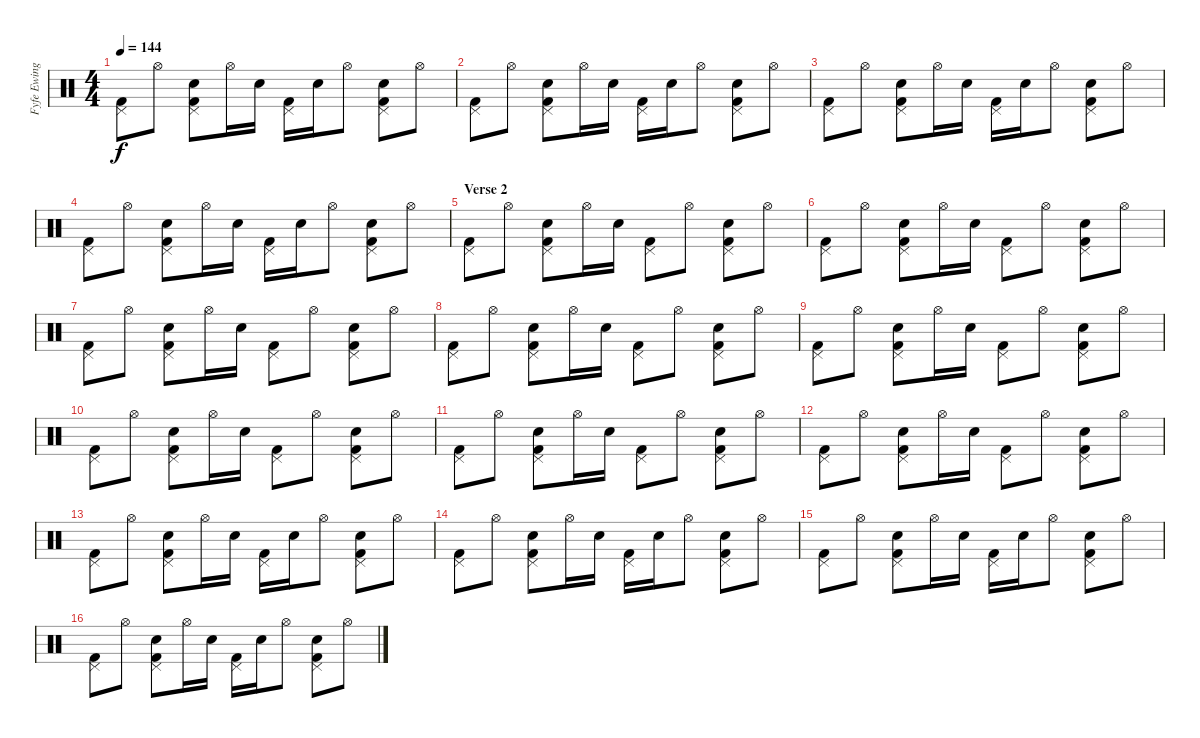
\track ("Fyfe Ewing" "Fyfe Ewing") {instrument percussion}
\staff {score}
\articulation defaults
\ts (4 4)
\tempo 144
\clef neutral
\ks c
("Pedal Hi-Hat (hit)" "Kick (hit) 2").8{dy f} "Hi-Hat (open)".8 ("Pedal Hi-Hat (hit)" "Snare (hit) 2" "Kick (hit) 2").8 "Hi-Hat (open)".16 "Snare (hit) 2".16 ("Pedal Hi-Hat (hit)" "Kick (hit) 2").16 "Snare (hit) 2".16 "Hi-Hat (open)".8 ("Pedal Hi-Hat (hit)" "Snare (hit) 2" "Kick (hit) 2").8 "Hi-Hat (open)".8 |
("Pedal Hi-Hat (hit)" "Kick (hit) 2").8 "Hi-Hat (open)".8 ("Pedal Hi-Hat (hit)" "Snare (hit) 2" "Kick (hit) 2").8 "Hi-Hat (open)".16 "Snare (hit) 2".16 ("Pedal Hi-Hat (hit)" "Kick (hit) 2").16 "Snare (hit) 2".16 "Hi-Hat (open)".8 ("Pedal Hi-Hat (hit)" "Snare (hit) 2" "Kick (hit) 2").8 "Hi-Hat (open)".8 |
("Pedal Hi-Hat (hit)" "Kick (hit) 2").8 "Hi-Hat (open)".8 ("Pedal Hi-Hat (hit)" "Snare (hit) 2" "Kick (hit) 2").8 "Hi-Hat (open)".16 "Snare (hit) 2".16 ("Pedal Hi-Hat (hit)" "Kick (hit) 2").16 "Snare (hit) 2".16 "Hi-Hat (open)".8 ("Pedal Hi-Hat (hit)" "Snare (hit) 2" "Kick (hit) 2").8 "Hi-Hat (open)".8 |
("Pedal Hi-Hat (hit)" "Kick (hit) 2").8 "Hi-Hat (open)".8 ("Pedal Hi-Hat (hit)" "Snare (hit) 2" "Kick (hit) 2").8 "Hi-Hat (open)".16 "Snare (hit) 2".16 ("Pedal Hi-Hat (hit)" "Kick (hit) 2").16 "Snare (hit) 2".16 "Hi-Hat (open)".8 ("Pedal Hi-Hat (hit)" "Snare (hit) 2" "Kick (hit) 2").8 "Hi-Hat (open)".8 |
\section ("" "Verse 2")
("Pedal Hi-Hat (hit)" "Kick (hit) 2").8 "Hi-Hat (open)".8 ("Pedal Hi-Hat (hit)" "Snare (hit) 2" "Kick (hit) 2").8 "Hi-Hat (open)".16 "Snare (hit) 2".16 ("Pedal Hi-Hat (hit)" "Kick (hit) 2").8 "Hi-Hat (open)".8 ("Pedal Hi-Hat (hit)" "Snare (hit) 2" "Kick (hit) 2").8 "Hi-Hat (open)".8 |
("Pedal Hi-Hat (hit)" "Kick (hit) 2").8 "Hi-Hat (open)".8 ("Pedal Hi-Hat (hit)" "Snare (hit) 2" "Kick (hit) 2").8 "Hi-Hat (open)".16 "Snare (hit) 2".16 ("Pedal Hi-Hat (hit)" "Kick (hit) 2").8 "Hi-Hat (open)".8 ("Pedal Hi-Hat (hit)" "Snare (hit) 2" "Kick (hit) 2").8 "Hi-Hat (open)".8 |
("Pedal Hi-Hat (hit)" "Kick (hit) 2").8 "Hi-Hat (open)".8 ("Pedal Hi-Hat (hit)" "Snare (hit) 2" "Kick (hit) 2").8 "Hi-Hat (open)".16 "Snare (hit) 2".16 ("Pedal Hi-Hat (hit)" "Kick (hit) 2").8 "Hi-Hat (open)".8 ("Pedal Hi-Hat (hit)" "Snare (hit) 2" "Kick (hit) 2").8 "Hi-Hat (open)".8 |
("Pedal Hi-Hat (hit)" "Kick (hit) 2").8 "Hi-Hat (open)".8 ("Pedal Hi-Hat (hit)" "Snare (hit) 2" "Kick (hit) 2").8 "Hi-Hat (open)".16 "Snare (hit) 2".16 ("Pedal Hi-Hat (hit)" "Kick (hit) 2").8 "Hi-Hat (open)".8 ("Pedal Hi-Hat (hit)" "Snare (hit) 2" "Kick (hit) 2").8 "Hi-Hat (open)".8 |
("Pedal Hi-Hat (hit)" "Kick (hit) 2").8 "Hi-Hat (open)".8 ("Pedal Hi-Hat (hit)" "Snare (hit) 2" "Kick (hit) 2").8 "Hi-Hat (open)".16 "Snare (hit) 2".16 ("Pedal Hi-Hat (hit)" "Kick (hit) 2").8 "Hi-Hat (open)".8 ("Pedal Hi-Hat (hit)" "Snare (hit) 2" "Kick (hit) 2").8 "Hi-Hat (open)".8 |
("Pedal Hi-Hat (hit)" "Kick (hit) 2").8 "Hi-Hat (open)".8 ("Pedal Hi-Hat (hit)" "Snare (hit) 2" "Kick (hit) 2").8 "Hi-Hat (open)".16 "Snare (hit) 2".16 ("Pedal Hi-Hat (hit)" "Kick (hit) 2").8 "Hi-Hat (open)".8 ("Pedal Hi-Hat (hit)" "Snare (hit) 2" "Kick (hit) 2").8 "Hi-Hat (open)".8 |
("Pedal Hi-Hat (hit)" "Kick (hit) 2").8 "Hi-Hat (open)".8 ("Pedal Hi-Hat (hit)" "Snare (hit) 2" "Kick (hit) 2").8 "Hi-Hat (open)".16 "Snare (hit) 2".16 ("Pedal Hi-Hat (hit)" "Kick (hit) 2").8 "Hi-Hat (open)".8 ("Pedal Hi-Hat (hit)" "Snare (hit) 2" "Kick (hit) 2").8 "Hi-Hat (open)".8 |
("Pedal Hi-Hat (hit)" "Kick (hit) 2").8 "Hi-Hat (open)".8 ("Pedal Hi-Hat (hit)" "Snare (hit) 2" "Kick (hit) 2").8 "Hi-Hat (open)".16 "Snare (hit) 2".16 ("Pedal Hi-Hat (hit)" "Kick (hit) 2").8 "Hi-Hat (open)".8 ("Pedal Hi-Hat (hit)" "Snare (hit) 2" "Kick (hit) 2").8 "Hi-Hat (open)".8 |
("Pedal Hi-Hat (hit)" "Kick (hit) 2").8 "Hi-Hat (open)".8 ("Pedal Hi-Hat (hit)" "Snare (hit) 2" "Kick (hit) 2").8 "Hi-Hat (open)".16 "Snare (hit) 2".16 ("Pedal Hi-Hat (hit)" "Kick (hit) 2").16 "Snare (hit) 2".16 "Hi-Hat (open)".8 ("Pedal Hi-Hat (hit)" "Snare (hit) 2" "Kick (hit) 2").8 "Hi-Hat (open)".8 |
("Pedal Hi-Hat (hit)" "Kick (hit) 2").8 "Hi-Hat (open)".8 ("Pedal Hi-Hat (hit)" "Snare (hit) 2" "Kick (hit) 2").8 "Hi-Hat (open)".16 "Snare (hit) 2".16 ("Pedal Hi-Hat (hit)" "Kick (hit) 2").16 "Snare (hit) 2".16 "Hi-Hat (open)".8 ("Pedal Hi-Hat (hit)" "Snare (hit) 2" "Kick (hit) 2").8 "Hi-Hat (open)".8 |
("Pedal Hi-Hat (hit)" "Kick (hit) 2").8 "Hi-Hat (open)".8 ("Pedal Hi-Hat (hit)" "Snare (hit) 2" "Kick (hit) 2").8 "Hi-Hat (open)".16 "Snare (hit) 2".16 ("Pedal Hi-Hat (hit)" "Kick (hit) 2").16 "Snare (hit) 2".16 "Hi-Hat (open)".8 ("Pedal Hi-Hat (hit)" "Snare (hit) 2" "Kick (hit) 2").8 "Hi-Hat (open)".8 |
("Pedal Hi-Hat (hit)" "Kick (hit) 2").8 "Hi-Hat (open)".8 ("Pedal Hi-Hat (hit)" "Snare (hit) 2" "Kick (hit) 2").8 "Hi-Hat (open)".16 "Snare (hit) 2".16 ("Pedal Hi-Hat (hit)" "Kick (hit) 2").16 "Snare (hit) 2".16 "Hi-Hat (open)".8 ("Pedal Hi-Hat (hit)" "Snare (hit) 2" "Kick (hit) 2").8 "Hi-Hat (open)".8
